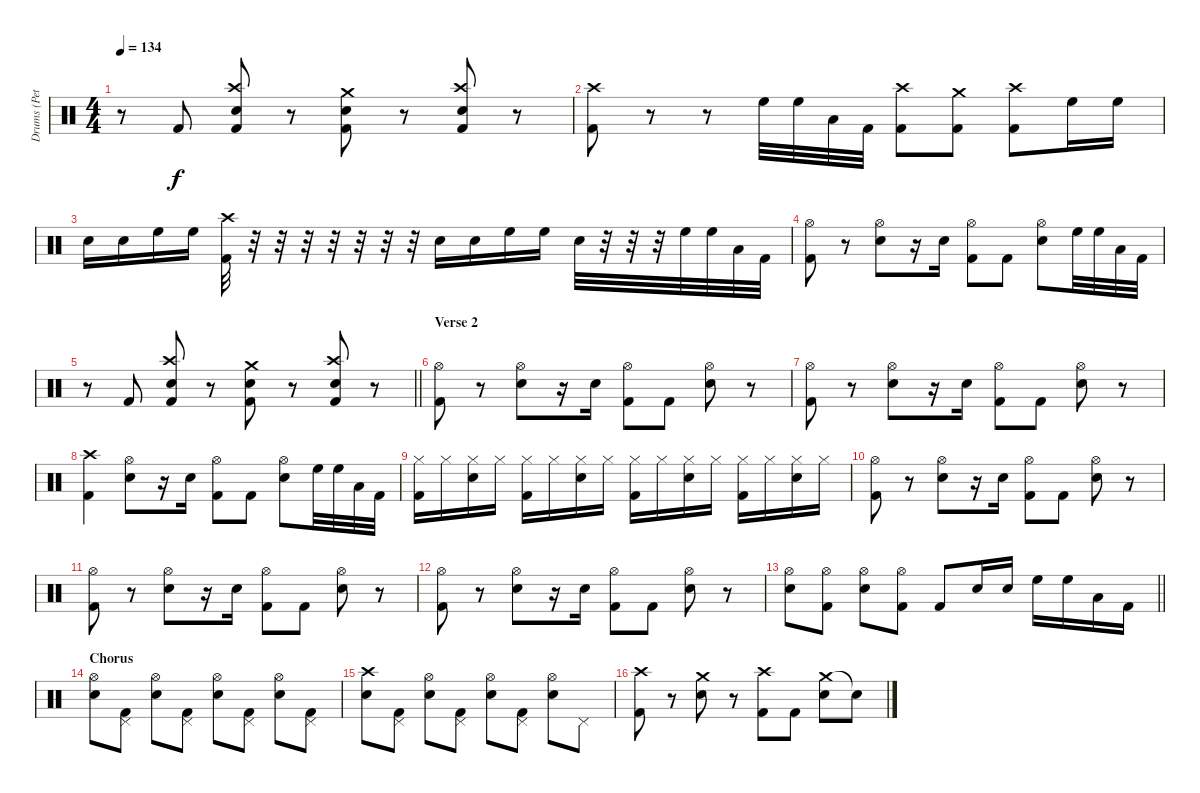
\track ("Drums (Peter)" "Drums (Pet") {instrument percussion}
\staff {score}
\articulation defaults
\ts (4 4)
\tempo 134
\clef neutral
\ks c
r.8{dy f} "Kick (hit) 2".8 ("Crash high (hit)" "Snare (hit) 2" "Kick (hit) 2").8 r.8 ("Crash medium (hit)" "Snare (hit) 2" "Kick (hit) 2").8 r.8 ("Crash high (hit)" "Snare (hit) 2" "Kick (hit) 2").8 r.8 |
("Crash high (hit)" "Kick (hit) 2").8 r.8 r.8 "High Floor Tom (hit)".32 "High Floor Tom (hit)".32 "Low Floor Tom (hit)".32 "Kick (hit) 2".32 ("Crash high (hit)" "Kick (hit) 2").8 ("Crash medium (hit)" "Kick (hit) 2").8 ("Crash high (hit)" "Kick (hit) 2").8 "High Floor Tom (hit)".16 "High Floor Tom (hit)".16 |
"Electric Snare (hit)".16 "Electric Snare (hit)".16 "High Floor Tom (hit)".16 "High Floor Tom (hit)".16 ("Crash high (hit)" "Kick (hit) 2").32 r.32 r.32 r.32 r.32 r.32 r.32 r.32 "Electric Snare (hit)".16 "Electric Snare (hit)".16 "High Floor Tom (hit)".16 "High Floor Tom (hit)".16 "Electric Snare (hit)".32 r.32 r.32 r.32 "High Floor Tom (hit)".32 "High Floor Tom (hit)".32 "Low Floor Tom (hit)".32 "Kick (hit) 2".32 |
("Hi-Hat (open)" "Kick (hit) 2").8 r.8 ("Hi-Hat (open)" "Snare (hit) 2").8 r.16 "Snare (hit) 2".16 ("Hi-Hat (open)" "Kick (hit) 2").8 "Kick (hit) 2".8 ("Hi-Hat (open)" "Snare (hit) 2").8 "High Floor Tom (hit)".32 "High Floor Tom (hit)".32 "Low Floor Tom (hit)".32 "Kick (hit) 2".32 |
\barLineRight lightlight
r.8 "Kick (hit) 2".8 ("Crash high (hit)" "Snare (hit) 2" "Kick (hit) 2").8 r.8 ("Crash medium (hit)" "Snare (hit) 2" "Kick (hit) 2").8 r.8 ("Crash high (hit)" "Snare (hit) 2" "Kick (hit) 2").8 r.8 |
\section ("" "Verse 2")
("Hi-Hat (open)" "Kick (hit) 2").8 r.8 ("Hi-Hat (open)" "Electric Snare (hit)").8 r.16 "Snare (hit) 2".16 ("Hi-Hat (open)" "Kick (hit) 2").8 "Kick (hit) 2".8 ("Hi-Hat (open)" "Electric Snare (hit)").8 r.8 |
("Hi-Hat (open)" "Kick (hit) 2").8 r.8 ("Hi-Hat (open)" "Electric Snare (hit)").8 r.16 "Snare (hit) 2".16 ("Hi-Hat (open)" "Kick (hit) 2").8 "Kick (hit) 2".8 ("Hi-Hat (open)" "Electric Snare (hit)").8 r.8 |
("Crash high (hit)" "Kick (hit) 2").4 ("Hi-Hat (open)" "Electric Snare (hit)").8 r.16 "Snare (hit) 2".16 ("Hi-Hat (open)" "Kick (hit) 2").8 "Kick (hit) 2".8 ("Hi-Hat (open)" "Electric Snare (hit)").8 "High Floor Tom (hit)".32 "High Floor Tom (hit)".32 "Low Floor Tom (hit)".32 "Kick (hit) 2".32 |
("Hi-Hat (closed)" "Kick (hit) 2").16 "Hi-Hat (closed)".16 ("Hi-Hat (closed)" "Electric Snare (hit)").16 "Hi-Hat (closed)".16 ("Hi-Hat (closed)" "Kick (hit) 2").16 "Hi-Hat (closed)".16 ("Hi-Hat (closed)" "Electric Snare (hit)").16 "Hi-Hat (closed)".16 ("Hi-Hat (closed)" "Kick (hit) 2").16 "Hi-Hat (closed)".16 ("Hi-Hat (closed)" "Electric Snare (hit)").16 "Hi-Hat (closed)".16 ("Hi-Hat (closed)" "Kick (hit) 2").16 "Hi-Hat (closed)".16 ("Hi-Hat (closed)" "Electric Snare (hit)").16 "Hi-Hat (closed)".16 |
("Hi-Hat (open)" "Kick (hit) 2").8 r.8 ("Hi-Hat (open)" "Electric Snare (hit)").8 r.16 "Snare (hit) 2".16 ("Hi-Hat (open)" "Kick (hit) 2").8 "Kick (hit) 2".8 ("Hi-Hat (open)" "Electric Snare (hit)").8 r.8 |
("Hi-Hat (open)" "Kick (hit) 2").8 r.8 ("Hi-Hat (open)" "Electric Snare (hit)").8 r.16 "Snare (hit) 2".16 ("Hi-Hat (open)" "Kick (hit) 2").8 "Kick (hit) 2".8 ("Hi-Hat (open)" "Electric Snare (hit)").8 r.8 |
("Hi-Hat (open)" "Kick (hit) 2").8 r.8 ("Hi-Hat (open)" "Electric Snare (hit)").8 r.16 "Snare (hit) 2".16 ("Hi-Hat (open)" "Kick (hit) 2").8 "Kick (hit) 2".8 ("Hi-Hat (open)" "Electric Snare (hit)").8 r.8 |
\barLineRight lightlight
("Hi-Hat (open)" "Electric Snare (hit)").8 ("Hi-Hat (open)" "Kick (hit) 2").8 ("Hi-Hat (open)" "Electric Snare (hit)").8 ("Hi-Hat (open)" "Kick (hit) 2").8 "Kick (hit) 2".8 "Snare (hit) 2".16 "Snare (hit) 2".16 "High Floor Tom (hit)".16 "High Floor Tom (hit)".16 "Low Floor Tom (hit)".16 "Kick (hit) 2".16 |
\section ("" "Chorus")
("Hi-Hat (open)" "Electric Snare (hit)").8 ("Pedal Hi-Hat (hit)" "Kick (hit) 2").8 ("Hi-Hat (open)" "Electric Snare (hit)").8 ("Pedal Hi-Hat (hit)" "Kick (hit) 2").8 ("Hi-Hat (open)" "Electric Snare (hit)").8 ("Pedal Hi-Hat (hit)" "Kick (hit) 2").8 ("Hi-Hat (open)" "Electric Snare (hit)").8 ("Pedal Hi-Hat (hit)" "Kick (hit) 2").8 |
("Crash high (hit)" "Electric Snare (hit)").8 ("Pedal Hi-Hat (hit)" "Kick (hit) 2").8 ("Hi-Hat (open)" "Electric Snare (hit)").8 ("Pedal Hi-Hat (hit)" "Kick (hit) 2").8 ("Hi-Hat (open)" "Electric Snare (hit)").8 ("Pedal Hi-Hat (hit)" "Kick (hit) 2").8 ("Hi-Hat (open)" "Electric Snare (hit)").8 "Pedal Hi-Hat (hit)".8 |
("Crash high (hit)" "Kick (hit) 2").8 r.8 ("Crash medium (hit)" "Electric Snare (hit)").8 r.8 ("Crash high (hit)" "Kick (hit) 2").8 "Kick (hit) 2".8 ("Crash medium (hit)" "Electric Snare (hit)").8 "Snare (hit)"{t}.8
